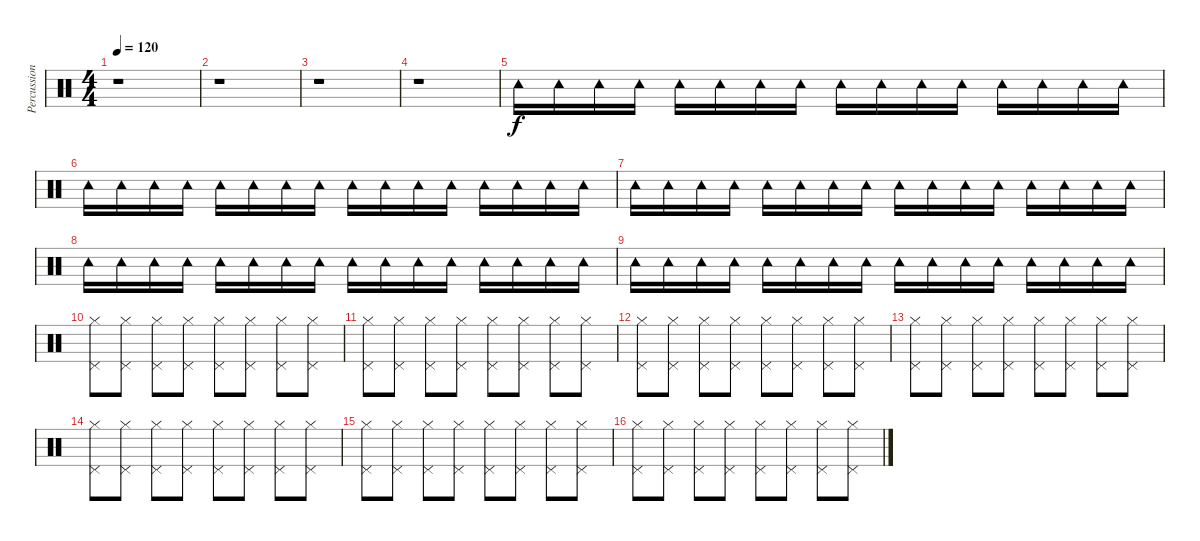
\track ("Percussion" "Percussion") {instrument percussion}
\staff {score}
\articulation defaults
\ts (4 4)
\tempo 120
\clef neutral
\ks c
r.1{dy f} |
r.1 |
r.1 |
r.1 |
"Tambourine (hit)".16 "Tambourine (hit)".16 "Tambourine (hit)".16 "Tambourine (hit)".16 "Tambourine (hit)".16 "Tambourine (hit)".16 "Tambourine (hit)".16 "Tambourine (hit)".16 "Tambourine (hit)".16 "Tambourine (hit)".16 "Tambourine (hit)".16 "Tambourine (hit)".16 "Tambourine (hit)".16 "Tambourine (hit)".16 "Tambourine (hit)".16 "Tambourine (hit)".16 |
"Tambourine (hit)".16 "Tambourine (hit)".16 "Tambourine (hit)".16 "Tambourine (hit)".16 "Tambourine (hit)".16 "Tambourine (hit)".16 "Tambourine (hit)".16 "Tambourine (hit)".16 "Tambourine (hit)".16 "Tambourine (hit)".16 "Tambourine (hit)".16 "Tambourine (hit)".16 "Tambourine (hit)".16 "Tambourine (hit)".16 "Tambourine (hit)".16 "Tambourine (hit)".16 |
"Tambourine (hit)".16 "Tambourine (hit)".16 "Tambourine (hit)".16 "Tambourine (hit)".16 "Tambourine (hit)".16 "Tambourine (hit)".16 "Tambourine (hit)".16 "Tambourine (hit)".16 "Tambourine (hit)".16 "Tambourine (hit)".16 "Tambourine (hit)".16 "Tambourine (hit)".16 "Tambourine (hit)".16 "Tambourine (hit)".16 "Tambourine (hit)".16 "Tambourine (hit)".16 |
"Tambourine (hit)".16 "Tambourine (hit)".16 "Tambourine (hit)".16 "Tambourine (hit)".16 "Tambourine (hit)".16 "Tambourine (hit)".16 "Tambourine (hit)".16 "Tambourine (hit)".16 "Tambourine (hit)".16 "Tambourine (hit)".16 "Tambourine (hit)".16 "Tambourine (hit)".16 "Tambourine (hit)".16 "Tambourine (hit)".16 "Tambourine (hit)".16 "Tambourine (hit)".16 |
"Tambourine (hit)".16 "Tambourine (hit)".16 "Tambourine (hit)".16 "Tambourine (hit)".16 "Tambourine (hit)".16 "Tambourine (hit)".16 "Tambourine (hit)".16 "Tambourine (hit)".16 "Tambourine (hit)".16 "Tambourine (hit)".16 "Tambourine (hit)".16 "Tambourine (hit)".16 "Tambourine (hit)".16 "Tambourine (hit)".16 "Tambourine (hit)".16 "Tambourine (hit)".16 |
("Hi-Hat (closed)" "Pedal Hi-Hat (hit)").8 ("Hi-Hat (closed)" "Pedal Hi-Hat (hit)").8 ("Hi-Hat (closed)" "Pedal Hi-Hat (hit)").8 ("Hi-Hat (closed)" "Pedal Hi-Hat (hit)").8 ("Hi-Hat (closed)" "Pedal Hi-Hat (hit)").8 ("Hi-Hat (closed)" "Pedal Hi-Hat (hit)").8 ("Hi-Hat (closed)" "Pedal Hi-Hat (hit)").8 ("Hi-Hat (closed)" "Pedal Hi-Hat (hit)").8 |
("Hi-Hat (closed)" "Pedal Hi-Hat (hit)").8 ("Hi-Hat (closed)" "Pedal Hi-Hat (hit)").8 ("Hi-Hat (closed)" "Pedal Hi-Hat (hit)").8 ("Hi-Hat (closed)" "Pedal Hi-Hat (hit)").8 ("Hi-Hat (closed)" "Pedal Hi-Hat (hit)").8 ("Hi-Hat (closed)" "Pedal Hi-Hat (hit)").8 ("Hi-Hat (closed)" "Pedal Hi-Hat (hit)").8 ("Hi-Hat (closed)" "Pedal Hi-Hat (hit)").8 |
("Hi-Hat (closed)" "Pedal Hi-Hat (hit)").8 ("Hi-Hat (closed)" "Pedal Hi-Hat (hit)").8 ("Hi-Hat (closed)" "Pedal Hi-Hat (hit)").8 ("Hi-Hat (closed)" "Pedal Hi-Hat (hit)").8 ("Hi-Hat (closed)" "Pedal Hi-Hat (hit)").8 ("Hi-Hat (closed)" "Pedal Hi-Hat (hit)").8 ("Hi-Hat (closed)" "Pedal Hi-Hat (hit)").8 ("Hi-Hat (closed)" "Pedal Hi-Hat (hit)").8 |
("Hi-Hat (closed)" "Pedal Hi-Hat (hit)").8 ("Hi-Hat (closed)" "Pedal Hi-Hat (hit)").8 ("Hi-Hat (closed)" "Pedal Hi-Hat (hit)").8 ("Hi-Hat (closed)" "Pedal Hi-Hat (hit)").8 ("Hi-Hat (closed)" "Pedal Hi-Hat (hit)").8 ("Hi-Hat (closed)" "Pedal Hi-Hat (hit)").8 ("Hi-Hat (closed)" "Pedal Hi-Hat (hit)").8 ("Hi-Hat (closed)" "Pedal Hi-Hat (hit)").8 |
("Hi-Hat (closed)" "Pedal Hi-Hat (hit)").8 ("Hi-Hat (closed)" "Pedal Hi-Hat (hit)").8 ("Hi-Hat (closed)" "Pedal Hi-Hat (hit)").8 ("Hi-Hat (closed)" "Pedal Hi-Hat (hit)").8 ("Hi-Hat (closed)" "Pedal Hi-Hat (hit)").8 ("Hi-Hat (closed)" "Pedal Hi-Hat (hit)").8 ("Hi-Hat (closed)" "Pedal Hi-Hat (hit)").8 ("Hi-Hat (closed)" "Pedal Hi-Hat (hit)").8 |
("Hi-Hat (closed)" "Pedal Hi-Hat (hit)").8 ("Hi-Hat (closed)" "Pedal Hi-Hat (hit)").8 ("Hi-Hat (closed)" "Pedal Hi-Hat (hit)").8 ("Hi-Hat (closed)" "Pedal Hi-Hat (hit)").8 ("Hi-Hat (closed)" "Pedal Hi-Hat (hit)").8 ("Hi-Hat (closed)" "Pedal Hi-Hat (hit)").8 ("Hi-Hat (closed)" "Pedal Hi-Hat (hit)").8 ("Hi-Hat (closed)" "Pedal Hi-Hat (hit)").8 |
("Hi-Hat (closed)" "Pedal Hi-Hat (hit)").8 ("Hi-Hat (closed)" "Pedal Hi-Hat (hit)").8 ("Hi-Hat (closed)" "Pedal Hi-Hat (hit)").8 ("Hi-Hat (closed)" "Pedal Hi-Hat (hit)").8 ("Hi-Hat (closed)" "Pedal Hi-Hat (hit)").8 ("Hi-Hat (closed)" "Pedal Hi-Hat (hit)").8 ("Hi-Hat (closed)" "Pedal Hi-Hat (hit)").8 ("Hi-Hat (closed)" "Pedal Hi-Hat (hit)").8
